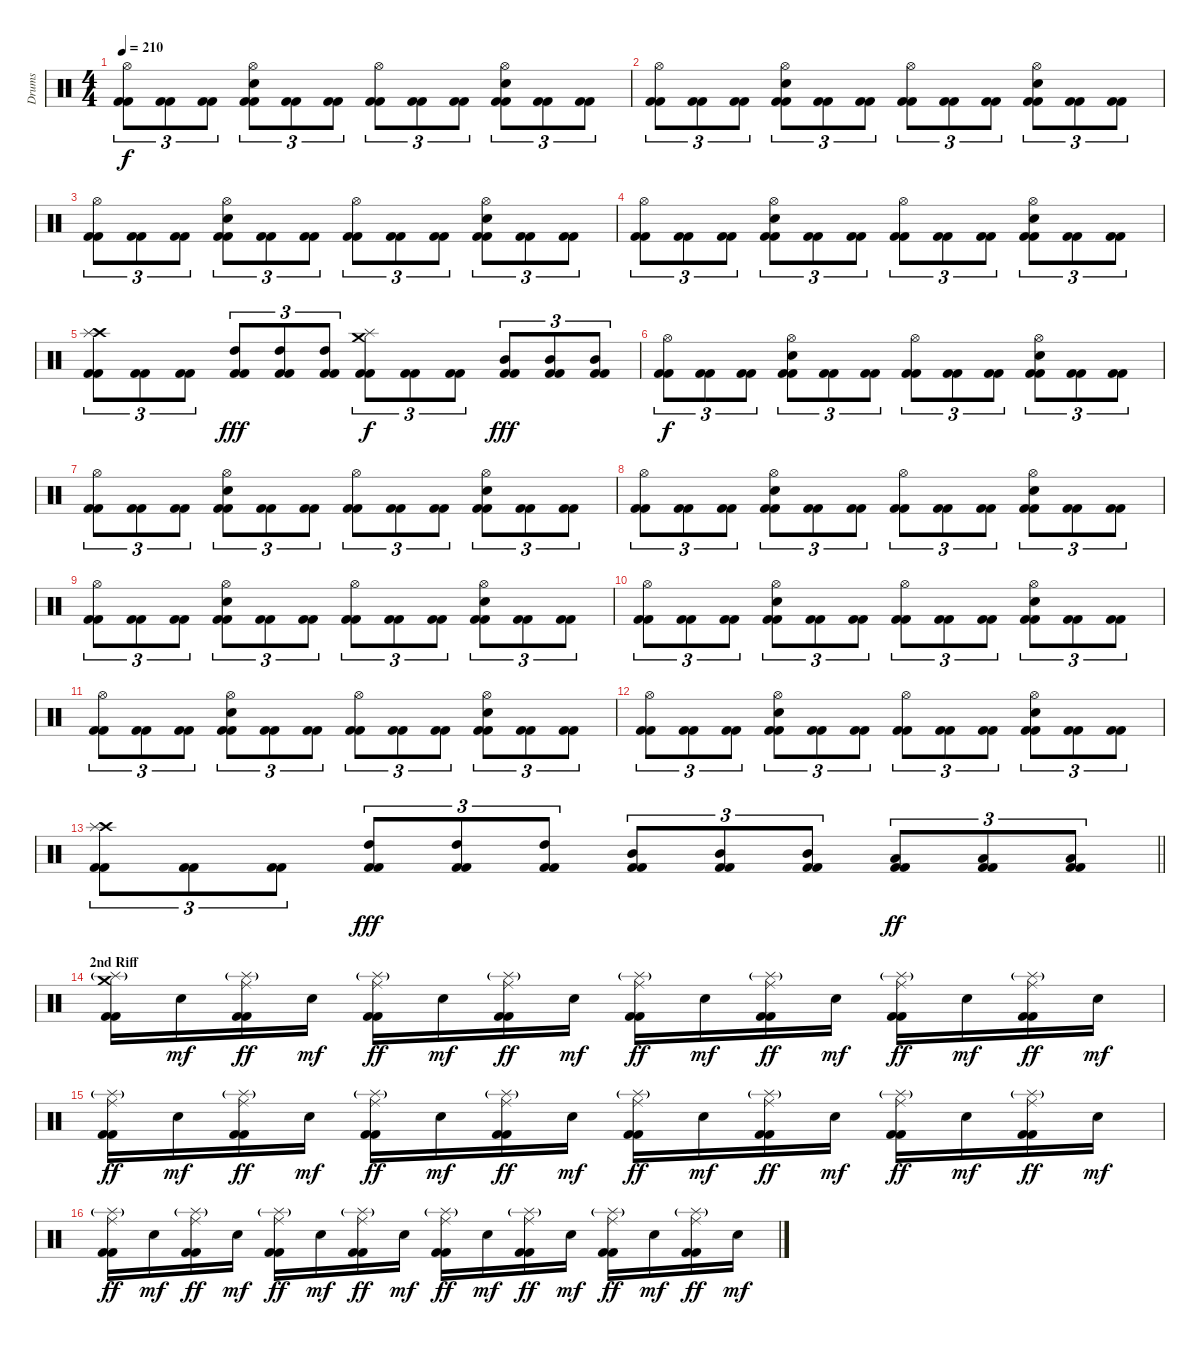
\track ("Drums" "Drums") {instrument percussion}
\staff {score}
\articulation defaults
\ts (4 4)
\tempo 210
\clef neutral
\ks c
("Hi-Hat (open)" "Kick (hit) 2" "Kick (hit) 2").8{tu (3 2) dy f} ("Kick (hit) 2" "Kick (hit) 2").8{tu (3 2)} ("Kick (hit) 2" "Kick (hit) 2").8{tu (3 2)} ("Hi-Hat (open)" "Snare (hit) 2" "Kick (hit) 2" "Kick (hit) 2").8{tu (3 2)} ("Kick (hit) 2" "Kick (hit) 2").8{tu (3 2)} ("Kick (hit) 2" "Kick (hit) 2").8{tu (3 2)} ("Hi-Hat (open)" "Kick (hit) 2" "Kick (hit) 2").8{tu (3 2)} ("Kick (hit) 2" "Kick (hit) 2").8{tu (3 2)} ("Kick (hit) 2" "Kick (hit) 2").8{tu (3 2)} ("Hi-Hat (open)" "Snare (hit) 2" "Kick (hit) 2" "Kick (hit) 2").8{tu (3 2)} ("Kick (hit) 2" "Kick (hit) 2").8{tu (3 2)} ("Kick (hit) 2" "Kick (hit) 2").8{tu (3 2)} |
("Hi-Hat (open)" "Kick (hit) 2" "Kick (hit) 2").8{tu (3 2)} ("Kick (hit) 2" "Kick (hit) 2").8{tu (3 2)} ("Kick (hit) 2" "Kick (hit) 2").8{tu (3 2)} ("Hi-Hat (open)" "Snare (hit) 2" "Kick (hit) 2" "Kick (hit) 2").8{tu (3 2)} ("Kick (hit) 2" "Kick (hit) 2").8{tu (3 2)} ("Kick (hit) 2" "Kick (hit) 2").8{tu (3 2)} ("Hi-Hat (open)" "Kick (hit) 2" "Kick (hit) 2").8{tu (3 2)} ("Kick (hit) 2" "Kick (hit) 2").8{tu (3 2)} ("Kick (hit) 2" "Kick (hit) 2").8{tu (3 2)} ("Hi-Hat (open)" "Snare (hit) 2" "Kick (hit) 2" "Kick (hit) 2").8{tu (3 2)} ("Kick (hit) 2" "Kick (hit) 2").8{tu (3 2)} ("Kick (hit) 2" "Kick (hit) 2").8{tu (3 2)} |
("Hi-Hat (open)" "Kick (hit) 2" "Kick (hit) 2").8{tu (3 2)} ("Kick (hit) 2" "Kick (hit) 2").8{tu (3 2)} ("Kick (hit) 2" "Kick (hit) 2").8{tu (3 2)} ("Hi-Hat (open)" "Snare (hit) 2" "Kick (hit) 2" "Kick (hit) 2").8{tu (3 2)} ("Kick (hit) 2" "Kick (hit) 2").8{tu (3 2)} ("Kick (hit) 2" "Kick (hit) 2").8{tu (3 2)} ("Hi-Hat (open)" "Kick (hit) 2" "Kick (hit) 2").8{tu (3 2)} ("Kick (hit) 2" "Kick (hit) 2").8{tu (3 2)} ("Kick (hit) 2" "Kick (hit) 2").8{tu (3 2)} ("Hi-Hat (open)" "Snare (hit) 2" "Kick (hit) 2" "Kick (hit) 2").8{tu (3 2)} ("Kick (hit) 2" "Kick (hit) 2").8{tu (3 2)} ("Kick (hit) 2" "Kick (hit) 2").8{tu (3 2)} |
("Hi-Hat (open)" "Kick (hit) 2" "Kick (hit) 2").8{tu (3 2)} ("Kick (hit) 2" "Kick (hit) 2").8{tu (3 2)} ("Kick (hit) 2" "Kick (hit) 2").8{tu (3 2)} ("Hi-Hat (open)" "Snare (hit) 2" "Kick (hit) 2" "Kick (hit) 2").8{tu (3 2)} ("Kick (hit) 2" "Kick (hit) 2").8{tu (3 2)} ("Kick (hit) 2" "Kick (hit) 2").8{tu (3 2)} ("Hi-Hat (open)" "Kick (hit) 2" "Kick (hit) 2").8{tu (3 2)} ("Kick (hit) 2" "Kick (hit) 2").8{tu (3 2)} ("Kick (hit) 2" "Kick (hit) 2").8{tu (3 2)} ("Hi-Hat (open)" "Snare (hit) 2" "Kick (hit) 2" "Kick (hit) 2").8{tu (3 2)} ("Kick (hit) 2" "Kick (hit) 2").8{tu (3 2)} ("Kick (hit) 2" "Kick (hit) 2").8{tu (3 2)} |
("Crash high (hit)" "Splash (hit)" "Kick (hit) 2" "Kick (hit) 2").8{tu (3 2)} ("Kick (hit) 2" "Kick (hit) 2").8{tu (3 2)} ("Kick (hit) 2" "Kick (hit) 2").8{tu (3 2)} ("High Tom (hit)" "Kick (hit) 2" "Kick (hit) 2").8{tu (3 2) dy fff} ("High Tom (hit)" "Kick (hit) 2" "Kick (hit) 2").8{tu (3 2)} ("High Tom (hit)" "Kick (hit) 2" "Kick (hit) 2").8{tu (3 2)} ("Crash medium (hit)" "Splash (hit)" "Kick (hit) 2" "Kick (hit) 2").8{tu (3 2) dy f} ("Kick (hit) 2" "Kick (hit) 2").8{tu (3 2)} ("Kick (hit) 2" "Kick (hit) 2").8{tu (3 2)} ("Mid Tom (hit)" "Kick (hit) 2" "Kick (hit) 2").8{tu (3 2) dy fff} ("Mid Tom (hit)" "Kick (hit) 2" "Kick (hit) 2").8{tu (3 2)} ("Mid Tom (hit)" "Kick (hit) 2" "Kick (hit) 2").8{tu (3 2)} |
("Hi-Hat (open)" "Kick (hit) 2" "Kick (hit) 2").8{tu (3 2) dy f} ("Kick (hit) 2" "Kick (hit) 2").8{tu (3 2)} ("Kick (hit) 2" "Kick (hit) 2").8{tu (3 2)} ("Hi-Hat (open)" "Snare (hit) 2" "Kick (hit) 2" "Kick (hit) 2").8{tu (3 2)} ("Kick (hit) 2" "Kick (hit) 2").8{tu (3 2)} ("Kick (hit) 2" "Kick (hit) 2").8{tu (3 2)} ("Hi-Hat (open)" "Kick (hit) 2" "Kick (hit) 2").8{tu (3 2)} ("Kick (hit) 2" "Kick (hit) 2").8{tu (3 2)} ("Kick (hit) 2" "Kick (hit) 2").8{tu (3 2)} ("Hi-Hat (open)" "Snare (hit) 2" "Kick (hit) 2" "Kick (hit) 2").8{tu (3 2)} ("Kick (hit) 2" "Kick (hit) 2").8{tu (3 2)} ("Kick (hit) 2" "Kick (hit) 2").8{tu (3 2)} |
("Hi-Hat (open)" "Kick (hit) 2" "Kick (hit) 2").8{tu (3 2)} ("Kick (hit) 2" "Kick (hit) 2").8{tu (3 2)} ("Kick (hit) 2" "Kick (hit) 2").8{tu (3 2)} ("Hi-Hat (open)" "Snare (hit) 2" "Kick (hit) 2" "Kick (hit) 2").8{tu (3 2)} ("Kick (hit) 2" "Kick (hit) 2").8{tu (3 2)} ("Kick (hit) 2" "Kick (hit) 2").8{tu (3 2)} ("Hi-Hat (open)" "Kick (hit) 2" "Kick (hit) 2").8{tu (3 2)} ("Kick (hit) 2" "Kick (hit) 2").8{tu (3 2)} ("Kick (hit) 2" "Kick (hit) 2").8{tu (3 2)} ("Hi-Hat (open)" "Snare (hit) 2" "Kick (hit) 2" "Kick (hit) 2").8{tu (3 2)} ("Kick (hit) 2" "Kick (hit) 2").8{tu (3 2)} ("Kick (hit) 2" "Kick (hit) 2").8{tu (3 2)} |
("Hi-Hat (open)" "Kick (hit) 2" "Kick (hit) 2").8{tu (3 2)} ("Kick (hit) 2" "Kick (hit) 2").8{tu (3 2)} ("Kick (hit) 2" "Kick (hit) 2").8{tu (3 2)} ("Hi-Hat (open)" "Snare (hit) 2" "Kick (hit) 2" "Kick (hit) 2").8{tu (3 2)} ("Kick (hit) 2" "Kick (hit) 2").8{tu (3 2)} ("Kick (hit) 2" "Kick (hit) 2").8{tu (3 2)} ("Hi-Hat (open)" "Kick (hit) 2" "Kick (hit) 2").8{tu (3 2)} ("Kick (hit) 2" "Kick (hit) 2").8{tu (3 2)} ("Kick (hit) 2" "Kick (hit) 2").8{tu (3 2)} ("Hi-Hat (open)" "Snare (hit) 2" "Kick (hit) 2" "Kick (hit) 2").8{tu (3 2)} ("Kick (hit) 2" "Kick (hit) 2").8{tu (3 2)} ("Kick (hit) 2" "Kick (hit) 2").8{tu (3 2)} |
("Hi-Hat (open)" "Kick (hit) 2" "Kick (hit) 2").8{tu (3 2)} ("Kick (hit) 2" "Kick (hit) 2").8{tu (3 2)} ("Kick (hit) 2" "Kick (hit) 2").8{tu (3 2)} ("Hi-Hat (open)" "Snare (hit) 2" "Kick (hit) 2" "Kick (hit) 2").8{tu (3 2)} ("Kick (hit) 2" "Kick (hit) 2").8{tu (3 2)} ("Kick (hit) 2" "Kick (hit) 2").8{tu (3 2)} ("Hi-Hat (open)" "Kick (hit) 2" "Kick (hit) 2").8{tu (3 2)} ("Kick (hit) 2" "Kick (hit) 2").8{tu (3 2)} ("Kick (hit) 2" "Kick (hit) 2").8{tu (3 2)} ("Hi-Hat (open)" "Snare (hit) 2" "Kick (hit) 2" "Kick (hit) 2").8{tu (3 2)} ("Kick (hit) 2" "Kick (hit) 2").8{tu (3 2)} ("Kick (hit) 2" "Kick (hit) 2").8{tu (3 2)} |
("Hi-Hat (open)" "Kick (hit) 2" "Kick (hit) 2").8{tu (3 2)} ("Kick (hit) 2" "Kick (hit) 2").8{tu (3 2)} ("Kick (hit) 2" "Kick (hit) 2").8{tu (3 2)} ("Hi-Hat (open)" "Snare (hit) 2" "Kick (hit) 2" "Kick (hit) 2").8{tu (3 2)} ("Kick (hit) 2" "Kick (hit) 2").8{tu (3 2)} ("Kick (hit) 2" "Kick (hit) 2").8{tu (3 2)} ("Hi-Hat (open)" "Kick (hit) 2" "Kick (hit) 2").8{tu (3 2)} ("Kick (hit) 2" "Kick (hit) 2").8{tu (3 2)} ("Kick (hit) 2" "Kick (hit) 2").8{tu (3 2)} ("Hi-Hat (open)" "Snare (hit) 2" "Kick (hit) 2" "Kick (hit) 2").8{tu (3 2)} ("Kick (hit) 2" "Kick (hit) 2").8{tu (3 2)} ("Kick (hit) 2" "Kick (hit) 2").8{tu (3 2)} |
("Hi-Hat (open)" "Kick (hit) 2" "Kick (hit) 2").8{tu (3 2)} ("Kick (hit) 2" "Kick (hit) 2").8{tu (3 2)} ("Kick (hit) 2" "Kick (hit) 2").8{tu (3 2)} ("Hi-Hat (open)" "Snare (hit) 2" "Kick (hit) 2" "Kick (hit) 2").8{tu (3 2)} ("Kick (hit) 2" "Kick (hit) 2").8{tu (3 2)} ("Kick (hit) 2" "Kick (hit) 2").8{tu (3 2)} ("Hi-Hat (open)" "Kick (hit) 2" "Kick (hit) 2").8{tu (3 2)} ("Kick (hit) 2" "Kick (hit) 2").8{tu (3 2)} ("Kick (hit) 2" "Kick (hit) 2").8{tu (3 2)} ("Hi-Hat (open)" "Snare (hit) 2" "Kick (hit) 2" "Kick (hit) 2").8{tu (3 2)} ("Kick (hit) 2" "Kick (hit) 2").8{tu (3 2)} ("Kick (hit) 2" "Kick (hit) 2").8{tu (3 2)} |
("Hi-Hat (open)" "Kick (hit) 2" "Kick (hit) 2").8{tu (3 2)} ("Kick (hit) 2" "Kick (hit) 2").8{tu (3 2)} ("Kick (hit) 2" "Kick (hit) 2").8{tu (3 2)} ("Hi-Hat (open)" "Snare (hit) 2" "Kick (hit) 2" "Kick (hit) 2").8{tu (3 2)} ("Kick (hit) 2" "Kick (hit) 2").8{tu (3 2)} ("Kick (hit) 2" "Kick (hit) 2").8{tu (3 2)} ("Hi-Hat (open)" "Kick (hit) 2" "Kick (hit) 2").8{tu (3 2)} ("Kick (hit) 2" "Kick (hit) 2").8{tu (3 2)} ("Kick (hit) 2" "Kick (hit) 2").8{tu (3 2)} ("Hi-Hat (open)" "Snare (hit) 2" "Kick (hit) 2" "Kick (hit) 2").8{tu (3 2)} ("Kick (hit) 2" "Kick (hit) 2").8{tu (3 2)} ("Kick (hit) 2" "Kick (hit) 2").8{tu (3 2)} |
\barLineRight lightlight
("Crash high (hit)" "Splash (hit)" "Kick (hit) 2" "Kick (hit) 2").8{tu (3 2)} ("Kick (hit) 2" "Kick (hit) 2").8{tu (3 2)} ("Kick (hit) 2" "Kick (hit) 2").8{tu (3 2)} ("High Tom (hit)" "Kick (hit) 2" "Kick (hit) 2").8{tu (3 2) dy fff} ("High Tom (hit)" "Kick (hit) 2" "Kick (hit) 2").8{tu (3 2)} ("High Tom (hit)" "Kick (hit) 2" "Kick (hit) 2").8{tu (3 2)} ("Mid Tom (hit)" "Kick (hit) 2" "Kick (hit) 2").8{tu (3 2)} ("Mid Tom (hit)" "Kick (hit) 2" "Kick (hit) 2").8{tu (3 2)} ("Mid Tom (hit)" "Kick (hit) 2" "Kick (hit) 2").8{tu (3 2)} ("Low Tom (hit)" "Kick (hit) 2" "Kick (hit) 2").8{tu (3 2) dy ff} ("Low Tom (hit)" "Kick (hit) 2" "Kick (hit) 2").8{tu (3 2)} ("Low Tom (hit)" "Kick (hit) 2" "Kick (hit) 2").8{tu (3 2)} |
\section ("" "2nd Riff")
("Crash medium (hit)" "Splash (hit)"{g} "Kick (hit) 2" "Kick (hit) 2").16 "Snare (hit) 2".16{dy mf} ("Ride (middle)" "Splash (hit)"{g} "Kick (hit) 2" "Kick (hit) 2").16{dy ff} "Snare (hit) 2".16{dy mf} ("Ride (middle)" "Splash (hit)"{g} "Kick (hit) 2" "Kick (hit) 2").16{dy ff} "Snare (hit) 2".16{dy mf} ("Ride (middle)" "Splash (hit)"{g} "Kick (hit) 2" "Kick (hit) 2").16{dy ff} "Snare (hit) 2".16{dy mf} ("Ride (middle)" "Splash (hit)"{g} "Kick (hit) 2" "Kick (hit) 2").16{dy ff} "Snare (hit) 2".16{dy mf} ("Ride (middle)" "Splash (hit)"{g} "Kick (hit) 2" "Kick (hit) 2").16{dy ff} "Snare (hit) 2".16{dy mf} ("Ride (middle)" "Splash (hit)"{g} "Kick (hit) 2" "Kick (hit) 2").16{dy ff} "Snare (hit) 2".16{dy mf} ("Ride (middle)" "Splash (hit)"{g} "Kick (hit) 2" "Kick (hit) 2").16{dy ff} "Snare (hit) 2".16{dy mf} |
("Ride (middle)" "Splash (hit)"{g} "Kick (hit) 2" "Kick (hit) 2").16{dy ff} "Snare (hit) 2".16{dy mf} ("Ride (middle)" "Splash (hit)"{g} "Kick (hit) 2" "Kick (hit) 2").16{dy ff} "Snare (hit) 2".16{dy mf} ("Ride (middle)" "Splash (hit)"{g} "Kick (hit) 2" "Kick (hit) 2").16{dy ff} "Snare (hit) 2".16{dy mf} ("Ride (middle)" "Splash (hit)"{g} "Kick (hit) 2" "Kick (hit) 2").16{dy ff} "Snare (hit) 2".16{dy mf} ("Ride (middle)" "Splash (hit)"{g} "Kick (hit) 2" "Kick (hit) 2").16{dy ff} "Snare (hit) 2".16{dy mf} ("Ride (middle)" "Splash (hit)"{g} "Kick (hit) 2" "Kick (hit) 2").16{dy ff} "Snare (hit) 2".16{dy mf} ("Ride (middle)" "Splash (hit)"{g} "Kick (hit) 2" "Kick (hit) 2").16{dy ff} "Snare (hit) 2".16{dy mf} ("Ride (middle)" "Splash (hit)"{g} "Kick (hit) 2" "Kick (hit) 2").16{dy ff} "Snare (hit) 2".16{dy mf} |
("Ride (middle)" "Splash (hit)"{g} "Kick (hit) 2" "Kick (hit) 2").16{dy ff} "Snare (hit) 2".16{dy mf} ("Ride (middle)" "Splash (hit)"{g} "Kick (hit) 2" "Kick (hit) 2").16{dy ff} "Snare (hit) 2".16{dy mf} ("Ride (middle)" "Splash (hit)"{g} "Kick (hit) 2" "Kick (hit) 2").16{dy ff} "Snare (hit) 2".16{dy mf} ("Ride (middle)" "Splash (hit)"{g} "Kick (hit) 2" "Kick (hit) 2").16{dy ff} "Snare (hit) 2".16{dy mf} ("Ride (middle)" "Splash (hit)"{g} "Kick (hit) 2" "Kick (hit) 2").16{dy ff} "Snare (hit) 2".16{dy mf} ("Ride (middle)" "Splash (hit)"{g} "Kick (hit) 2" "Kick (hit) 2").16{dy ff} "Snare (hit) 2".16{dy mf} ("Ride (middle)" "Splash (hit)"{g} "Kick (hit) 2" "Kick (hit) 2").16{dy ff} "Snare (hit) 2".16{dy mf} ("Ride (middle)" "Splash (hit)"{g} "Kick (hit) 2" "Kick (hit) 2").16{dy ff} "Snare (hit) 2".16{dy mf}
